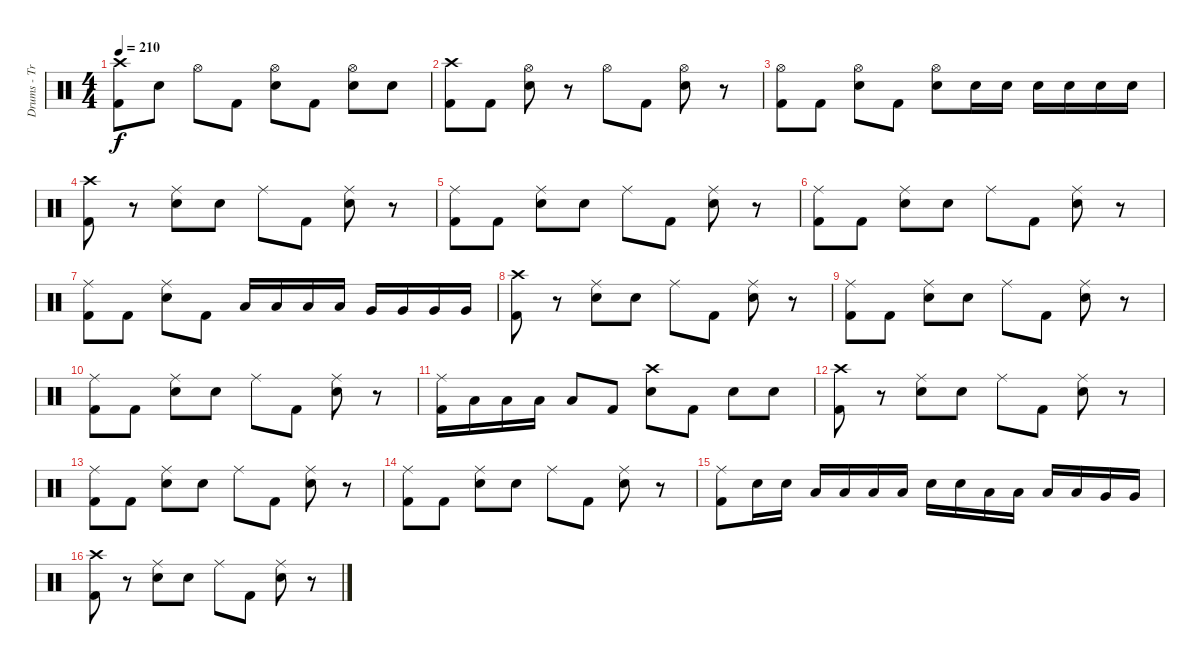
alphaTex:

\track ("Drums - Travis Barker" "Drums - Tr") {instrument percussion}
\staff {score}
\articulation defaults
\ts (4 4)
\tempo 210
\clef neutral
\ks c
("Crash high (hit)" "Kick (hit) 2").8{dy f} "Electric Snare (hit)".8 "Hi-Hat (open)".8 "Kick (hit) 2".8 ("Hi-Hat (open)" "Electric Snare (hit)").8 "Kick (hit) 2".8 ("Hi-Hat (open)" "Electric Snare (hit)").8 "Electric Snare (hit)".8 |
("Crash high (hit)" "Kick (hit) 2").8 "Kick (hit) 2".8 ("Hi-Hat (open)" "Electric Snare (hit)").8 r.8 "Hi-Hat (open)".8 "Kick (hit) 2".8 ("Hi-Hat (open)" "Electric Snare (hit)").8 r.8 |
("Hi-Hat (open)" "Kick (hit) 2").8 "Kick (hit) 2".8 ("Hi-Hat (open)" "Electric Snare (hit)").8 "Kick (hit) 2".8 ("Hi-Hat (open)" "Electric Snare (hit)").8 "Electric Snare (hit)".16 "Electric Snare (hit)".16 "Electric Snare (hit)".16 "Electric Snare (hit)".16 "Electric Snare (hit)".16 "Electric Snare (hit)".16 |
("Crash high (hit)" "Kick (hit) 2").8 r.8 ("Ride (middle)" "Electric Snare (hit)").8 "Electric Snare (hit)".8 "Ride (middle)".8 "Kick (hit) 2".8 ("Ride (middle)" "Electric Snare (hit)").8 r.8 |
("Ride (middle)" "Kick (hit) 2").8 "Kick (hit) 2".8 ("Ride (middle)" "Electric Snare (hit)").8 "Electric Snare (hit)".8 "Ride (middle)".8 "Kick (hit) 2".8 ("Ride (middle)" "Electric Snare (hit)").8 r.8 |
("Ride (middle)" "Kick (hit) 2").8 "Kick (hit) 2".8 ("Ride (middle)" "Electric Snare (hit)").8 "Electric Snare (hit)".8 "Ride (middle)".8 "Kick (hit) 2".8 ("Ride (middle)" "Electric Snare (hit)").8 r.8 |
("Ride (middle)" "Kick (hit) 2").8 "Kick (hit) 2".8 ("Ride (middle)" "Electric Snare (hit)").8 "Kick (hit) 2".8 "Low Tom (hit)".16 "Low Tom (hit)".16 "Low Tom (hit)".16 "Low Tom (hit)".16 "Very Low Tom (hit)".16 "Very Low Tom (hit)".16 "Very Low Tom (hit)".16 "Very Low Tom (hit)".16 |
("Crash high (hit)" "Kick (hit) 2").8 r.8 ("Ride (middle)" "Electric Snare (hit)").8 "Electric Snare (hit)".8 "Ride (middle)".8 "Kick (hit) 2".8 ("Ride (middle)" "Electric Snare (hit)").8 r.8 |
("Ride (middle)" "Kick (hit) 2").8 "Kick (hit) 2".8 ("Ride (middle)" "Electric Snare (hit)").8 "Electric Snare (hit)".8 "Ride (middle)".8 "Kick (hit) 2".8 ("Ride (middle)" "Electric Snare (hit)").8 r.8 |
("Ride (middle)" "Kick (hit) 2").8 "Kick (hit) 2".8 ("Ride (middle)" "Electric Snare (hit)").8 "Electric Snare (hit)".8 "Ride (middle)".8 "Kick (hit) 2".8 ("Ride (middle)" "Electric Snare (hit)").8 r.8 |
("Ride (middle)" "Kick (hit) 2").16 "Low Tom (hit)".16 "Low Tom (hit)".16 "Low Tom (hit)".16 "Low Tom (hit)".8 "Kick (hit) 2".8 ("Crash high (hit)" "Electric Snare (hit)").8 "Kick (hit) 2".8 "Electric Snare (hit)".8 "Electric Snare (hit)".8 |
("Crash high (hit)" "Kick (hit) 2").8 r.8 ("Ride (middle)" "Electric Snare (hit)").8 "Electric Snare (hit)".8 "Ride (middle)".8 "Kick (hit) 2".8 ("Ride (middle)" "Electric Snare (hit)").8 r.8 |
("Ride (middle)" "Kick (hit) 2").8 "Kick (hit) 2".8 ("Ride (middle)" "Electric Snare (hit)").8 "Electric Snare (hit)".8 "Ride (middle)".8 "Kick (hit) 2".8 ("Ride (middle)" "Electric Snare (hit)").8 r.8 |
("Ride (middle)" "Kick (hit) 2").8 "Kick (hit) 2".8 ("Ride (middle)" "Electric Snare (hit)").8 "Electric Snare (hit)".8 "Ride (middle)".8 "Kick (hit) 2".8 ("Ride (middle)" "Electric Snare (hit)").8 r.8 |
("Ride (middle)" "Kick (hit) 2").8 "Electric Snare (hit)".16 "Electric Snare (hit)".16 "Low Tom (hit)".16 "Low Tom (hit)".16 "Low Tom (hit)".16 "Low Tom (hit)".16 "Electric Snare (hit)".16 "Electric Snare (hit)".16 "Low Tom (hit)".16 "Low Tom (hit)".16 "Low Tom (hit)".16 "Low Tom (hit)".16 "Very Low Tom (hit)".16 "Very Low Tom (hit)".16 |
("Crash high (hit)" "Kick (hit) 2").8 r.8 ("Ride (middle)" "Electric Snare (hit)").8 "Electric Snare (hit)".8 "Ride (middle)".8 "Kick (hit) 2".8 ("Ride (middle)" "Electric Snare (hit)").8 r.8
